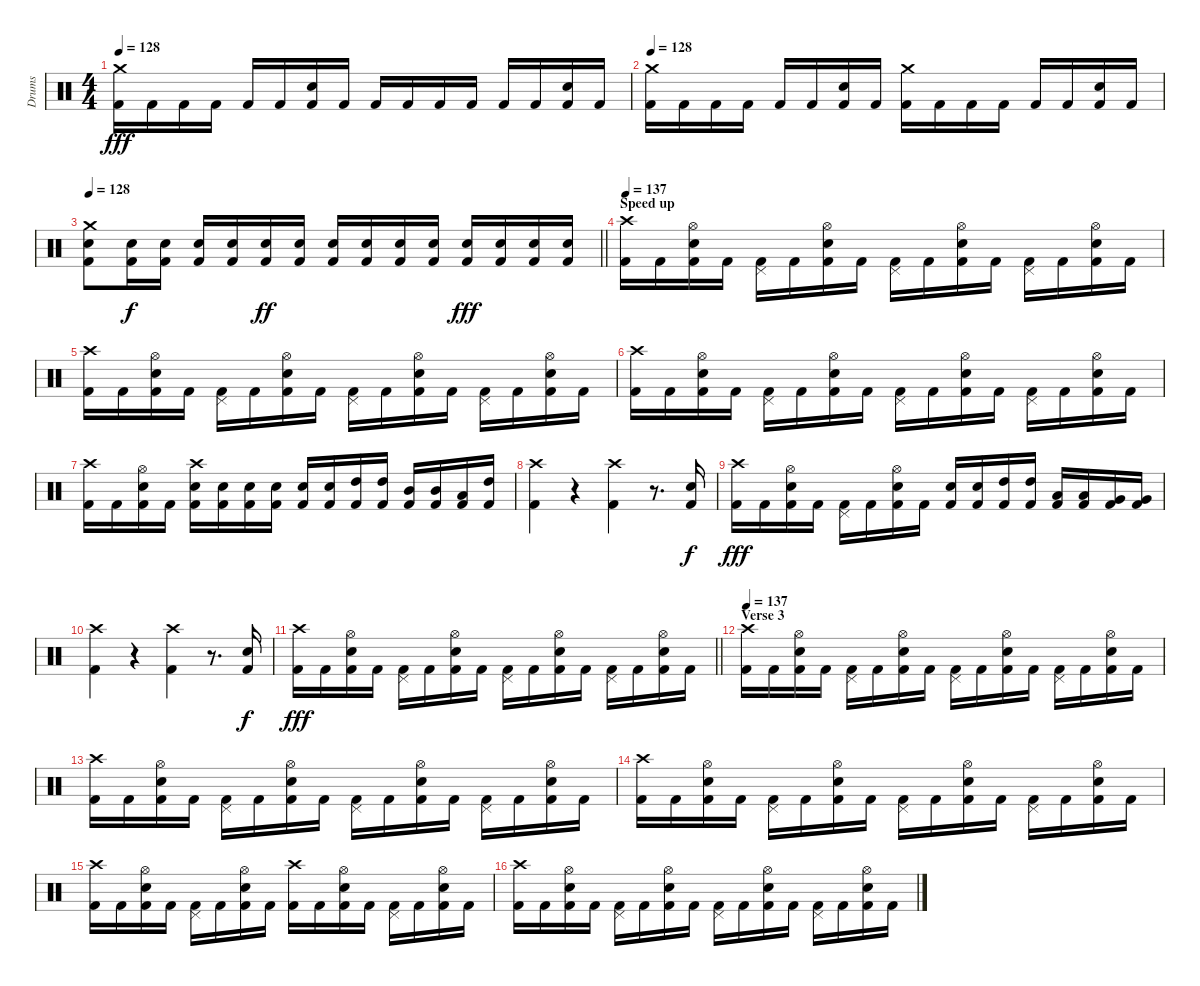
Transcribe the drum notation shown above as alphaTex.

\track ("Drums" "Drums") {instrument percussion}
\staff {score}
\articulation defaults
\ts (4 4)
\tempo 128
\clef neutral
\ks c
("Crash medium (hit)" "Kick (hit) 2").16{dy fff} "Kick (hit) 2".16 "Kick (hit) 2".16 "Kick (hit) 2".16 "Kick (hit) 2".16 "Kick (hit) 2".16 ("Electric Snare (hit)" "Kick (hit) 2").16 "Kick (hit) 2".16 "Kick (hit) 2".16 "Kick (hit) 2".16 "Kick (hit) 2".16 "Kick (hit) 2".16 "Kick (hit) 2".16 "Kick (hit) 2".16 ("Electric Snare (hit)" "Kick (hit) 2").16 "Kick (hit) 2".16 |
\tempo 128
("Crash medium (hit)" "Kick (hit) 2").16 "Kick (hit) 2".16 "Kick (hit) 2".16 "Kick (hit) 2".16 "Kick (hit) 2".16 "Kick (hit) 2".16 ("Electric Snare (hit)" "Kick (hit) 2").16 "Kick (hit) 2".16 ("Crash medium (hit)" "Kick (hit) 2").16 "Kick (hit) 2".16 "Kick (hit) 2".16 "Kick (hit) 2".16 "Kick (hit) 2".16 "Kick (hit) 2".16 ("Electric Snare (hit)" "Kick (hit) 2").16 "Kick (hit) 2".16 |
\tempo 128
\barLineRight lightlight
("Crash medium (hit)" "Electric Snare (hit)" "Kick (hit) 2").8 ("Electric Snare (hit)" "Kick (hit) 2").16{dy f} ("Electric Snare (hit)" "Kick (hit) 2").16 ("Electric Snare (hit)" "Kick (hit) 2").16 ("Electric Snare (hit)" "Kick (hit) 2").16 ("Electric Snare (hit)" "Kick (hit) 2").16{dy ff} ("Electric Snare (hit)" "Kick (hit) 2").16 ("Electric Snare (hit)" "Kick (hit) 2").16 ("Electric Snare (hit)" "Kick (hit) 2").16 ("Electric Snare (hit)" "Kick (hit) 2").16 ("Electric Snare (hit)" "Kick (hit) 2").16 ("Electric Snare (hit)" "Kick (hit) 2").16{dy fff} ("Electric Snare (hit)" "Kick (hit) 2").16 ("Electric Snare (hit)" "Kick (hit) 2").16 ("Electric Snare (hit)" "Kick (hit) 2").16 |
\section ("" "Speed up")
\tempo 137
("Crash high (hit)" "Kick (hit) 2").16 "Kick (hit) 2".16 ("Hi-Hat (open)" "Electric Snare (hit)" "Kick (hit) 2").16 "Kick (hit) 2".16 ("Pedal Hi-Hat (hit)" "Kick (hit) 2").16 "Kick (hit) 2".16 ("Hi-Hat (open)" "Electric Snare (hit)" "Kick (hit) 2").16 "Kick (hit) 2".16 ("Pedal Hi-Hat (hit)" "Kick (hit) 2").16 "Kick (hit) 2".16 ("Hi-Hat (open)" "Electric Snare (hit)" "Kick (hit) 2").16 "Kick (hit) 2".16 ("Pedal Hi-Hat (hit)" "Kick (hit) 2").16 "Kick (hit) 2".16 ("Hi-Hat (open)" "Electric Snare (hit)" "Kick (hit) 2").16 "Kick (hit) 2".16 |
("Crash high (hit)" "Kick (hit) 2").16 "Kick (hit) 2".16 ("Hi-Hat (open)" "Electric Snare (hit)" "Kick (hit) 2").16 "Kick (hit) 2".16 ("Pedal Hi-Hat (hit)" "Kick (hit) 2").16 "Kick (hit) 2".16 ("Hi-Hat (open)" "Electric Snare (hit)" "Kick (hit) 2").16 "Kick (hit) 2".16 ("Pedal Hi-Hat (hit)" "Kick (hit) 2").16 "Kick (hit) 2".16 ("Hi-Hat (open)" "Electric Snare (hit)" "Kick (hit) 2").16 "Kick (hit) 2".16 ("Pedal Hi-Hat (hit)" "Kick (hit) 2").16 "Kick (hit) 2".16 ("Hi-Hat (open)" "Electric Snare (hit)" "Kick (hit) 2").16 "Kick (hit) 2".16 |
("Crash high (hit)" "Kick (hit) 2").16 "Kick (hit) 2".16 ("Hi-Hat (open)" "Electric Snare (hit)" "Kick (hit) 2").16 "Kick (hit) 2".16 ("Pedal Hi-Hat (hit)" "Kick (hit) 2").16 "Kick (hit) 2".16 ("Hi-Hat (open)" "Electric Snare (hit)" "Kick (hit) 2").16 "Kick (hit) 2".16 ("Pedal Hi-Hat (hit)" "Kick (hit) 2").16 "Kick (hit) 2".16 ("Hi-Hat (open)" "Electric Snare (hit)" "Kick (hit) 2").16 "Kick (hit) 2".16 ("Pedal Hi-Hat (hit)" "Kick (hit) 2").16 "Kick (hit) 2".16 ("Hi-Hat (open)" "Electric Snare (hit)" "Kick (hit) 2").16 "Kick (hit) 2".16 |
("Crash high (hit)" "Kick (hit) 2").16 "Kick (hit) 2".16 ("Hi-Hat (open)" "Electric Snare (hit)" "Kick (hit) 2").16 "Kick (hit) 2".16 ("Crash high (hit)" "Electric Snare (hit)" "Kick (hit) 2").16 ("Electric Snare (hit)" "Kick (hit) 2").16 ("Electric Snare (hit)" "Kick (hit) 2").16 ("Electric Snare (hit)" "Kick (hit) 2").16 ("Electric Snare (hit)" "Kick (hit) 2").16 ("Electric Snare (hit)" "Kick (hit) 2").16 ("High Tom (hit)" "Kick (hit) 2").16 ("High Tom (hit)" "Kick (hit) 2").16 ("Mid Tom (hit)" "Kick (hit) 2").16 ("Mid Tom (hit)" "Kick (hit) 2").16 ("Low Tom (hit)" "Kick (hit) 2").16 ("High Tom (hit)" "Kick (hit) 2").16 |
("Crash high (hit)" "Kick (hit) 2").4 r.4 ("Crash high (hit)" "Kick (hit) 2").4 r.8{d} ("Electric Snare (hit)" "Kick (hit) 2").16{dy f} |
("Crash high (hit)" "Kick (hit) 2").16{dy fff} "Kick (hit) 2".16 ("Hi-Hat (open)" "Electric Snare (hit)" "Kick (hit) 2").16 "Kick (hit) 2".16 ("Pedal Hi-Hat (hit)" "Kick (hit) 2").16 "Kick (hit) 2".16 ("Hi-Hat (open)" "Electric Snare (hit)" "Kick (hit) 2").16 "Kick (hit) 2".16 ("Electric Snare (hit)" "Kick (hit) 2").16 ("Electric Snare (hit)" "Kick (hit) 2").16 ("High Tom (hit)" "Kick (hit) 2").16 ("High Tom (hit)" "Kick (hit) 2").16 ("Low Tom (hit)" "Kick (hit) 2").16 ("Low Tom (hit)" "Kick (hit) 2").16 ("Very Low Tom (hit)" "Kick (hit) 2").16 ("Very Low Tom (hit)" "Kick (hit) 2").16 |
("Crash high (hit)" "Kick (hit) 2").4 r.4 ("Crash high (hit)" "Kick (hit) 2").4 r.8{d} ("Electric Snare (hit)" "Kick (hit) 2").16{dy f} |
\barLineRight lightlight
("Crash high (hit)" "Kick (hit) 2").16{dy fff} "Kick (hit) 2".16 ("Hi-Hat (open)" "Electric Snare (hit)" "Kick (hit) 2").16 "Kick (hit) 2".16 ("Pedal Hi-Hat (hit)" "Kick (hit) 2").16 "Kick (hit) 2".16 ("Hi-Hat (open)" "Electric Snare (hit)" "Kick (hit) 2").16 "Kick (hit) 2".16 ("Pedal Hi-Hat (hit)" "Kick (hit) 2").16 "Kick (hit) 2".16 ("Hi-Hat (open)" "Electric Snare (hit)" "Kick (hit) 2").16 "Kick (hit) 2".16 ("Pedal Hi-Hat (hit)" "Kick (hit) 2").16 "Kick (hit) 2".16 ("Hi-Hat (open)" "Electric Snare (hit)" "Kick (hit) 2").16 "Kick (hit) 2".16 |
\section ("" "Verse 3")
\tempo 137
("Crash high (hit)" "Kick (hit) 2").16 "Kick (hit) 2".16 ("Hi-Hat (open)" "Electric Snare (hit)" "Kick (hit) 2").16 "Kick (hit) 2".16 ("Pedal Hi-Hat (hit)" "Kick (hit) 2").16 "Kick (hit) 2".16 ("Hi-Hat (open)" "Electric Snare (hit)" "Kick (hit) 2").16 "Kick (hit) 2".16 ("Pedal Hi-Hat (hit)" "Kick (hit) 2").16 "Kick (hit) 2".16 ("Hi-Hat (open)" "Electric Snare (hit)" "Kick (hit) 2").16 "Kick (hit) 2".16 ("Pedal Hi-Hat (hit)" "Kick (hit) 2").16 "Kick (hit) 2".16 ("Hi-Hat (open)" "Electric Snare (hit)" "Kick (hit) 2").16 "Kick (hit) 2".16 |
("Crash high (hit)" "Kick (hit) 2").16 "Kick (hit) 2".16 ("Hi-Hat (open)" "Electric Snare (hit)" "Kick (hit) 2").16 "Kick (hit) 2".16 ("Pedal Hi-Hat (hit)" "Kick (hit) 2").16 "Kick (hit) 2".16 ("Hi-Hat (open)" "Electric Snare (hit)" "Kick (hit) 2").16 "Kick (hit) 2".16 ("Pedal Hi-Hat (hit)" "Kick (hit) 2").16 "Kick (hit) 2".16 ("Hi-Hat (open)" "Electric Snare (hit)" "Kick (hit) 2").16 "Kick (hit) 2".16 ("Pedal Hi-Hat (hit)" "Kick (hit) 2").16 "Kick (hit) 2".16 ("Hi-Hat (open)" "Electric Snare (hit)" "Kick (hit) 2").16 "Kick (hit) 2".16 |
("Crash high (hit)" "Kick (hit) 2").16 "Kick (hit) 2".16 ("Hi-Hat (open)" "Electric Snare (hit)" "Kick (hit) 2").16 "Kick (hit) 2".16 ("Pedal Hi-Hat (hit)" "Kick (hit) 2").16 "Kick (hit) 2".16 ("Hi-Hat (open)" "Electric Snare (hit)" "Kick (hit) 2").16 "Kick (hit) 2".16 ("Pedal Hi-Hat (hit)" "Kick (hit) 2").16 "Kick (hit) 2".16 ("Hi-Hat (open)" "Electric Snare (hit)" "Kick (hit) 2").16 "Kick (hit) 2".16 ("Pedal Hi-Hat (hit)" "Kick (hit) 2").16 "Kick (hit) 2".16 ("Hi-Hat (open)" "Electric Snare (hit)" "Kick (hit) 2").16 "Kick (hit) 2".16 |
("Crash high (hit)" "Kick (hit) 2").16 "Kick (hit) 2".16 ("Hi-Hat (open)" "Electric Snare (hit)" "Kick (hit) 2").16 "Kick (hit) 2".16 ("Pedal Hi-Hat (hit)" "Kick (hit) 2").16 "Kick (hit) 2".16 ("Hi-Hat (open)" "Electric Snare (hit)" "Kick (hit) 2").16 "Kick (hit) 2".16 ("Crash high (hit)" "Kick (hit) 2").16 "Kick (hit) 2".16 ("Hi-Hat (open)" "Electric Snare (hit)" "Kick (hit) 2").16 "Kick (hit) 2".16 ("Pedal Hi-Hat (hit)" "Kick (hit) 2").16 "Kick (hit) 2".16 ("Hi-Hat (open)" "Electric Snare (hit)" "Kick (hit) 2").16 "Kick (hit) 2".16 |
("Crash high (hit)" "Kick (hit) 2").16 "Kick (hit) 2".16 ("Hi-Hat (open)" "Electric Snare (hit)" "Kick (hit) 2").16 "Kick (hit) 2".16 ("Pedal Hi-Hat (hit)" "Kick (hit) 2").16 "Kick (hit) 2".16 ("Hi-Hat (open)" "Electric Snare (hit)" "Kick (hit) 2").16 "Kick (hit) 2".16 ("Pedal Hi-Hat (hit)" "Kick (hit) 2").16 "Kick (hit) 2".16 ("Hi-Hat (open)" "Electric Snare (hit)" "Kick (hit) 2").16 "Kick (hit) 2".16 ("Pedal Hi-Hat (hit)" "Kick (hit) 2").16 "Kick (hit) 2".16 ("Hi-Hat (open)" "Electric Snare (hit)" "Kick (hit) 2").16 "Kick (hit) 2".16
